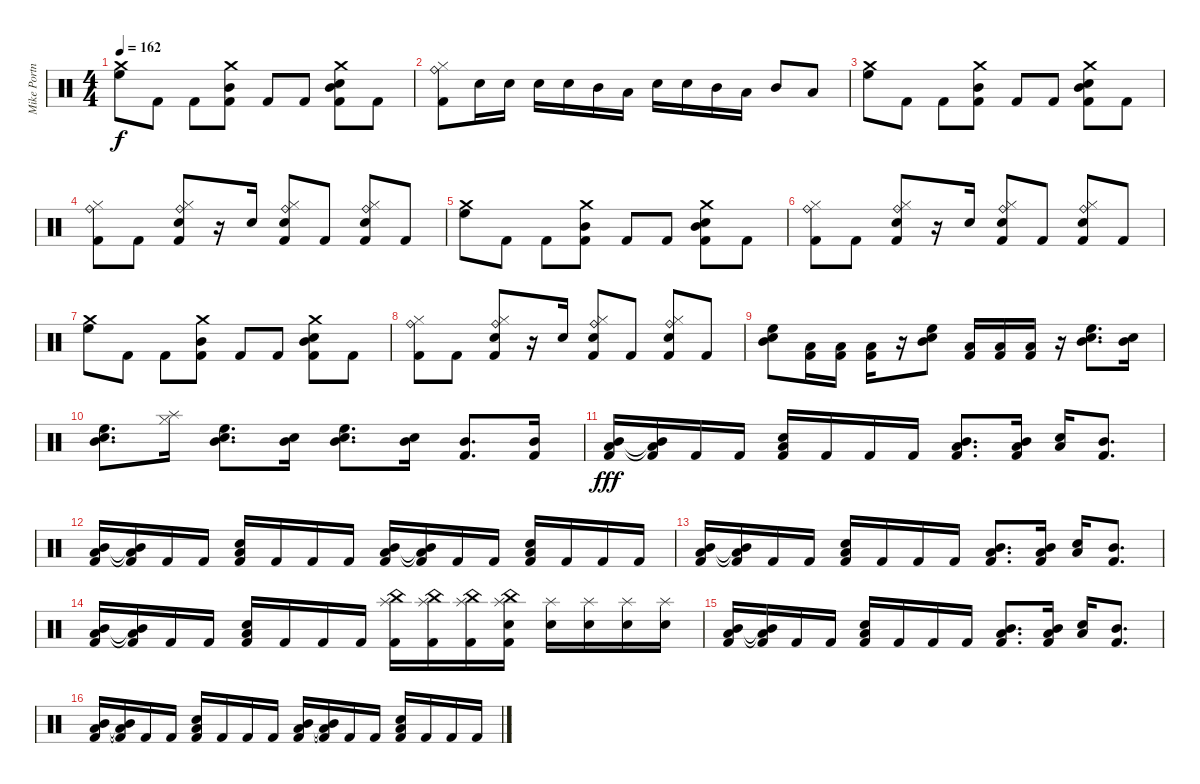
\track ("Mike Portnoy" "Mike Portn") {instrument percussion}
\staff {score}
\articulation defaults
\ts (4 4)
\tempo 162
\clef neutral
\ks c
("Crash medium (hit)" "High Floor Tom (hit)").8{dy f} "Kick (hit) 2".8 "Kick (hit) 2".8 ("Crash medium (hit)" "Mid Tom (hit)" "Kick (hit) 2").8 "Kick (hit) 2".8 "Kick (hit) 2".8 ("Crash medium (hit)" "Electric Snare (hit)" "Mid Tom (hit)" "Kick (hit) 2").8 "Kick (hit) 2".8 |
("Ride (bell)" "Hi-Hat (closed)" "Kick (hit) 2").8 "Electric Snare (hit)".16 "Electric Snare (hit)".16 "Electric Snare (hit)".16 "Electric Snare (hit)".16 "Mid Tom (hit)".16 "Low Tom (hit)".16 "Electric Snare (hit)".16 "Electric Snare (hit)".16 "Mid Tom (hit)".16 "Low Tom (hit)".16 "Mid Tom (hit)".8 "Low Tom (hit)".8 |
("Crash medium (hit)" "High Floor Tom (hit)").8 "Kick (hit) 2".8 "Kick (hit) 2".8 ("Crash medium (hit)" "Mid Tom (hit)" "Kick (hit) 2").8 "Kick (hit) 2".8 "Kick (hit) 2".8 ("Crash medium (hit)" "Electric Snare (hit)" "Mid Tom (hit)" "Kick (hit) 2").8 "Kick (hit) 2".8 |
("Ride (bell)" "Hi-Hat (closed)" "Kick (hit) 2").8 "Kick (hit) 2".8 ("Ride (bell)" "Hi-Hat (closed)" "Snare (hit) 2" "Kick (hit) 2").8 r.16 "Electric Snare (hit)".16 ("Ride (bell)" "Hi-Hat (closed)" "Snare (hit) 2" "Kick (hit) 2").8 "Kick (hit) 2".8 ("Ride (bell)" "Hi-Hat (closed)" "Snare (hit) 2" "Kick (hit) 2").8 "Kick (hit) 2".8 |
("Crash medium (hit)" "High Floor Tom (hit)").8 "Kick (hit) 2".8 "Kick (hit) 2".8 ("Crash medium (hit)" "Mid Tom (hit)" "Kick (hit) 2").8 "Kick (hit) 2".8 "Kick (hit) 2".8 ("Crash medium (hit)" "Electric Snare (hit)" "Mid Tom (hit)" "Kick (hit) 2").8 "Kick (hit) 2".8 |
("Ride (bell)" "Hi-Hat (closed)" "Kick (hit) 2").8 "Kick (hit) 2".8 ("Ride (bell)" "Hi-Hat (closed)" "Snare (hit) 2" "Kick (hit) 2").8 r.16 "Electric Snare (hit)".16 ("Ride (bell)" "Hi-Hat (closed)" "Snare (hit) 2" "Kick (hit) 2").8 "Kick (hit) 2".8 ("Ride (bell)" "Hi-Hat (closed)" "Snare (hit) 2" "Kick (hit) 2").8 "Kick (hit) 2".8 |
("Crash medium (hit)" "High Floor Tom (hit)").8 "Kick (hit) 2".8 "Kick (hit) 2".8 ("Crash medium (hit)" "Mid Tom (hit)" "Kick (hit) 2").8 "Kick (hit) 2".8 "Kick (hit) 2".8 ("Crash medium (hit)" "Electric Snare (hit)" "Mid Tom (hit)" "Kick (hit) 2").8 "Kick (hit) 2".8 |
("Ride (bell)" "Hi-Hat (closed)" "Kick (hit) 2").8 "Kick (hit) 2".8 ("Ride (bell)" "Hi-Hat (closed)" "Snare (hit) 2" "Kick (hit) 2").8 r.16 "Electric Snare (hit)".16 ("Ride (bell)" "Hi-Hat (closed)" "Snare (hit) 2" "Kick (hit) 2").8 "Kick (hit) 2".8 ("Ride (bell)" "Hi-Hat (closed)" "Snare (hit) 2" "Kick (hit) 2").8 "Kick (hit) 2".8 |
("Mid Tom (hit)" "Electric Snare (hit)" "High Floor Tom (hit)").8 ("Low Tom (hit)" "Kick (hit) 2").16 ("Low Tom (hit)" "Kick (hit) 2").16 ("Low Tom (hit)" "Kick (hit) 2").16 r.16 ("Mid Tom (hit)" "Electric Snare (hit)" "High Floor Tom (hit)").8 ("Low Tom (hit)" "Kick (hit) 2").16 ("Low Tom (hit)" "Kick (hit) 2").16 ("Low Tom (hit)" "Kick (hit) 2").16 r.16 ("Mid Tom (hit)" "Electric Snare (hit)" "High Floor Tom (hit)").8{d} ("Mid Tom (hit)" "Electric Snare (hit)").16 |
("Mid Tom (hit)" "Electric Snare (hit)" "High Floor Tom (hit)").8{d} ("Hi-Hat (closed)" "Splash (hit)").16 ("Mid Tom (hit)" "Electric Snare (hit)" "High Floor Tom (hit)").8{d} ("Mid Tom (hit)" "Electric Snare (hit)").16 ("Mid Tom (hit)" "Electric Snare (hit)" "High Floor Tom (hit)").8{d} ("Mid Tom (hit)" "Electric Snare (hit)").16 ("Mid Tom (hit)" "Kick (hit) 2").8{d} ("Mid Tom (hit)" "Kick (hit) 2").16 |
("Mid Tom (hit)" "Low Tom (hit)" "Kick (hit) 2").16{dy fff} ("Mid Tom (hit)"{t} "Low Tom (hit)"{t} "Kick (hit) 2").16 "Kick (hit) 2".16 "Kick (hit) 2".16 ("Electric Snare (hit)" "Low Tom (hit)" "Kick (hit) 2").16 "Kick (hit) 2".16 "Kick (hit) 2".16 "Kick (hit) 2".16 ("Mid Tom (hit)" "Low Tom (hit)" "Kick (hit) 2").8{d} ("Mid Tom (hit)" "Low Tom (hit)" "Kick (hit) 2").16 ("Electric Snare (hit)" "Low Tom (hit)").16 ("Mid Tom (hit)" "Kick (hit) 2").8{d} |
("Mid Tom (hit)" "Low Tom (hit)" "Kick (hit) 2").16 ("Mid Tom (hit)"{t} "Low Tom (hit)"{t} "Kick (hit) 2").16 "Kick (hit) 2".16 "Kick (hit) 2".16 ("Electric Snare (hit)" "Low Tom (hit)" "Kick (hit) 2").16 "Kick (hit) 2".16 "Kick (hit) 2".16 "Kick (hit) 2".16 ("Mid Tom (hit)" "Low Tom (hit)" "Kick (hit) 2").16 ("Mid Tom (hit)"{t} "Low Tom (hit)"{t} "Kick (hit) 2").16 "Kick (hit) 2".16 "Kick (hit) 2".16 ("Electric Snare (hit)" "Low Tom (hit)" "Kick (hit) 2").16 "Kick (hit) 2".16 "Kick (hit) 2".16 "Kick (hit) 2".16 |
("Mid Tom (hit)" "Low Tom (hit)" "Kick (hit) 2").16 ("Mid Tom (hit)"{t} "Low Tom (hit)"{t} "Kick (hit) 2").16 "Kick (hit) 2".16 "Kick (hit) 2".16 ("Electric Snare (hit)" "Low Tom (hit)" "Kick (hit) 2").16 "Kick (hit) 2".16 "Kick (hit) 2".16 "Kick (hit) 2".16 ("Mid Tom (hit)" "Low Tom (hit)" "Kick (hit) 2").8{d} ("Mid Tom (hit)" "Low Tom (hit)" "Kick (hit) 2").16 ("Electric Snare (hit)" "Low Tom (hit)").16 ("Mid Tom (hit)" "Kick (hit) 2").8{d} |
("Mid Tom (hit)" "Low Tom (hit)" "Kick (hit) 2").16 ("Mid Tom (hit)"{t} "Low Tom (hit)"{t} "Kick (hit) 2").16 "Kick (hit) 2".16 "Kick (hit) 2".16 ("Electric Snare (hit)" "Low Tom (hit)" "Kick (hit) 2").16 "Kick (hit) 2".16 "Kick (hit) 2".16 "Kick (hit) 2".16 ("China (hit)" "Splash (hit)" "Kick (hit) 2").16 ("China (hit)" "Splash (hit)" "Kick (hit) 2").16 ("China (hit)" "Splash (hit)" "Kick (hit) 2").16 ("China (hit)" "Splash (hit)" "Electric Snare (hit)" "Kick (hit) 2").16 ("Splash (hit)" "Electric Snare (hit)").16 ("Splash (hit)" "Electric Snare (hit)").16 ("Splash (hit)" "Electric Snare (hit)").16 ("Splash (hit)" "Electric Snare (hit)").16 |
("Mid Tom (hit)" "Low Tom (hit)" "Kick (hit) 2").16 ("Mid Tom (hit)"{t} "Low Tom (hit)"{t} "Kick (hit) 2").16 "Kick (hit) 2".16 "Kick (hit) 2".16 ("Electric Snare (hit)" "Low Tom (hit)" "Kick (hit) 2").16 "Kick (hit) 2".16 "Kick (hit) 2".16 "Kick (hit) 2".16 ("Mid Tom (hit)" "Low Tom (hit)" "Kick (hit) 2").8{d} ("Mid Tom (hit)" "Low Tom (hit)" "Kick (hit) 2").16 ("Electric Snare (hit)" "Low Tom (hit)").16 ("Mid Tom (hit)" "Kick (hit) 2").8{d} |
("Mid Tom (hit)" "Low Tom (hit)" "Kick (hit) 2").16 ("Mid Tom (hit)"{t} "Low Tom (hit)"{t} "Kick (hit) 2").16 "Kick (hit) 2".16 "Kick (hit) 2".16 ("Electric Snare (hit)" "Low Tom (hit)" "Kick (hit) 2").16 "Kick (hit) 2".16 "Kick (hit) 2".16 "Kick (hit) 2".16 ("Mid Tom (hit)" "Low Tom (hit)" "Kick (hit) 2").16 ("Mid Tom (hit)"{t} "Low Tom (hit)"{t} "Kick (hit) 2").16 "Kick (hit) 2".16 "Kick (hit) 2".16 ("Electric Snare (hit)" "Low Tom (hit)" "Kick (hit) 2").16 "Kick (hit) 2".16 "Kick (hit) 2".16 "Kick (hit) 2".16
